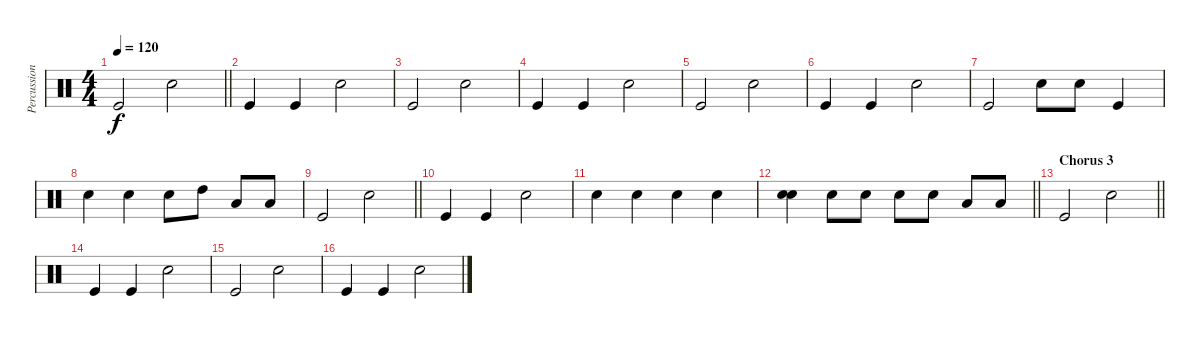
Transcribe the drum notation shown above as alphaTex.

\track ("Percussion" "Percussion") {instrument percussion}
\staff {score}
\articulation defaults
\ts (4 4)
\tempo 120
\clef neutral
\barLineRight lightlight
\ks c "Kick (hit)".2{dy f} "Snare (hit) 2".2
|
"Kick (hit)".4 "Kick (hit)".4 "Snare (hit) 2".2 |
"Kick (hit)".2 "Snare (hit) 2".2 |
"Kick (hit)".4 "Kick (hit)".4 "Snare (hit) 2".2 |
"Kick (hit)".2 "Snare (hit) 2".2 |
"Kick (hit)".4 "Kick (hit)".4 "Snare (hit) 2".2 |
"Kick (hit)".2 "Snare (hit) 2".8 "Snare (hit) 2".8 "Kick (hit)".4 |
"Snare (hit) 2".4 "Snare (hit) 2".4 "Snare (hit) 2".8 "High Tom (hit)".8 "Low Tom (hit)".8 "Low Floor Tom (hit)".8 |
\barLineRight lightlight "Kick (hit)".2 "Snare (hit) 2".2
|
"Kick (hit)".4 "Kick (hit)".4 "Snare (hit) 2".2 |
"Snare (hit) 2".4 "Snare (hit) 2".4 "Snare (hit) 2".4 "Snare (hit) 2".4 |
\barLineRight lightlight
("Snare (hit) 2" "Snare (hit) 2").4 "Snare (hit) 2".8 "Snare (hit) 2".8 "Snare (hit) 2".8 "Snare (hit) 2".8 "Low Tom (hit)".8 "Low Tom (hit)".8 |
\section ("" "Chorus 3")
\barLineRight lightlight "Kick (hit)".2 "Snare (hit) 2".2
|
"Kick (hit)".4 "Kick (hit)".4 "Snare (hit) 2".2 |
"Kick (hit)".2 "Snare (hit) 2".2 |
"Kick (hit)".4 "Kick (hit)".4 "Snare (hit) 2".2
